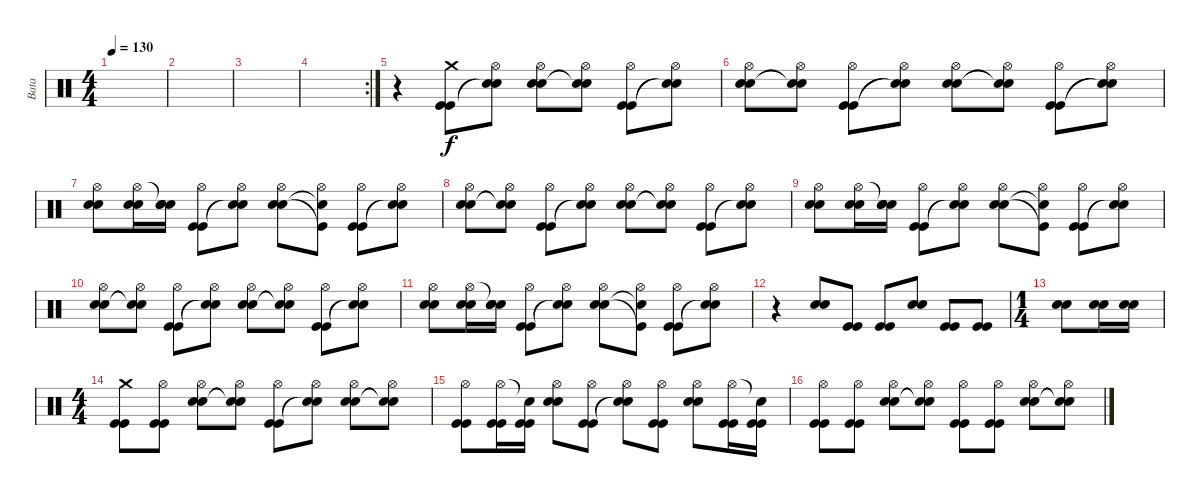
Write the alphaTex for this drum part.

\track ("Bata" "Bata") {instrument percussion}
\staff {score}
\articulation defaults
\ts (4 4)
\tempo 130
\clef neutral
\ks c
|
|
|
\rc 2
|
r.4 ("Crash medium (hit)" "Kick (hit)" "Kick (hit)").8 ("Hi-Hat (open)" "Snare (hit)"{t} "Snare (hit)"{t}).8 ("Hi-Hat (open)" "Snare (hit) 2" "Snare (hit) 2").8 ("Hi-Hat (open)" "Snare (hit)"{t} "Snare (hit)"{t}).8 ("Hi-Hat (open)" "Kick (hit)" "Kick (hit)").8 ("Hi-Hat (open)" "Snare (hit)"{t} "Snare (hit)"{t}).8 |
("Hi-Hat (open)" "Snare (hit) 2" "Snare (hit) 2").8 ("Hi-Hat (open)" "Snare (hit)"{t} "Snare (hit)"{t}).8 ("Hi-Hat (open)" "Kick (hit)" "Kick (hit)").8 ("Hi-Hat (open)" "Snare (hit)"{t} "Snare (hit)"{t}).8 ("Hi-Hat (open)" "Snare (hit) 2" "Snare (hit) 2").8 ("Hi-Hat (open)" "Snare (hit)"{t} "Snare (hit)"{t}).8 ("Hi-Hat (open)" "Kick (hit)" "Kick (hit)").8 ("Hi-Hat (open)" "Snare (hit)"{t} "Snare (hit)"{t}).8 |
("Hi-Hat (open)" "Snare (hit) 2" "Snare (hit) 2").8 ("Hi-Hat (open)" "Snare (hit) 2" "Snare (hit) 2").16 ("Snare (hit)"{t} "Snare (hit) 2" "Snare (hit) 2").16 ("Hi-Hat (open)" "Kick (hit)" "Kick (hit)").8 ("Hi-Hat (open)" "Snare (hit)"{t} "Snare (hit)"{t}).8 ("Hi-Hat (open)" "Snare (hit) 2" "Snare (hit) 2").8 ("Hi-Hat (open)" "Snare (hit)"{t} "Kick (hit)"{t}).8 ("Hi-Hat (open)" "Kick (hit)" "Kick (hit)").8 ("Hi-Hat (open)" "Snare (hit)"{t} "Snare (hit)"{t}).8 |
("Hi-Hat (open)" "Snare (hit) 2" "Snare (hit) 2").8 ("Hi-Hat (open)" "Snare (hit)"{t} "Snare (hit)"{t}).8 ("Hi-Hat (open)" "Kick (hit)" "Kick (hit)").8 ("Hi-Hat (open)" "Snare (hit)"{t} "Snare (hit)"{t}).8 ("Hi-Hat (open)" "Snare (hit) 2" "Snare (hit) 2").8 ("Hi-Hat (open)" "Snare (hit)"{t} "Snare (hit)"{t}).8 ("Hi-Hat (open)" "Kick (hit)" "Kick (hit)").8 ("Hi-Hat (open)" "Snare (hit)"{t} "Snare (hit)"{t}).8 |
("Hi-Hat (open)" "Snare (hit) 2" "Snare (hit) 2").8 ("Hi-Hat (open)" "Snare (hit) 2" "Snare (hit) 2").16 ("Snare (hit)"{t} "Snare (hit) 2" "Snare (hit) 2").16 ("Hi-Hat (open)" "Kick (hit)" "Kick (hit)").8 ("Hi-Hat (open)" "Snare (hit)"{t} "Snare (hit)"{t}).8 ("Hi-Hat (open)" "Snare (hit) 2" "Snare (hit) 2").8 ("Hi-Hat (open)" "Snare (hit)"{t} "Kick (hit)"{t}).8 ("Hi-Hat (open)" "Kick (hit)" "Kick (hit)").8 ("Hi-Hat (open)" "Snare (hit)"{t} "Snare (hit)"{t}).8 |
("Hi-Hat (open)" "Snare (hit) 2" "Snare (hit) 2").8 ("Hi-Hat (open)" "Snare (hit)"{t} "Snare (hit)"{t}).8 ("Hi-Hat (open)" "Kick (hit)" "Kick (hit)").8 ("Hi-Hat (open)" "Snare (hit)"{t} "Snare (hit)"{t}).8 ("Hi-Hat (open)" "Snare (hit) 2" "Snare (hit) 2").8 ("Hi-Hat (open)" "Snare (hit)"{t} "Snare (hit)"{t}).8 ("Hi-Hat (open)" "Kick (hit)" "Kick (hit)").8 ("Hi-Hat (open)" "Snare (hit)"{t} "Snare (hit)"{t}).8 |
("Hi-Hat (open)" "Snare (hit) 2" "Snare (hit) 2").8 ("Hi-Hat (open)" "Snare (hit) 2" "Snare (hit) 2").16 ("Snare (hit)"{t} "Snare (hit) 2" "Snare (hit) 2").16 ("Hi-Hat (open)" "Kick (hit)" "Kick (hit)").8 ("Hi-Hat (open)" "Snare (hit)"{t} "Snare (hit)"{t}).8 ("Hi-Hat (open)" "Snare (hit) 2" "Snare (hit) 2").8 ("Hi-Hat (open)" "Snare (hit)"{t} "Kick (hit)"{t}).8 ("Hi-Hat (open)" "Kick (hit)" "Kick (hit)").8 ("Hi-Hat (open)" "Snare (hit)"{t} "Snare (hit)"{t}).8 |
r.4 ("Snare (hit) 2" "Snare (hit) 2").8 ("Kick (hit)" "Kick (hit)").8 ("Kick (hit)" "Kick (hit)").8 ("Snare (hit) 2" "Snare (hit) 2").8 ("Kick (hit)" "Kick (hit)").8 ("Kick (hit)" "Kick (hit)").8 |
\ts (1 4)
("Snare (hit) 2" "Snare (hit) 2").8 ("Snare (hit) 2" "Snare (hit) 2").16 ("Snare (hit) 2" "Snare (hit) 2").16 |
\ts (4 4)
("Crash medium (hit)" "Kick (hit)" "Kick (hit)").8 ("Hi-Hat (open)" "Kick (hit)" "Kick (hit)").8 ("Hi-Hat (open)" "Snare (hit) 2" "Snare (hit) 2").8 ("Hi-Hat (open)" "Snare (hit)"{t} "Snare (hit)"{t}).8 ("Hi-Hat (open)" "Kick (hit)" "Kick (hit)").8 ("Hi-Hat (open)" "Snare (hit)"{t} "Snare (hit)"{t}).8 ("Hi-Hat (open)" "Snare (hit) 2" "Snare (hit) 2").8 ("Hi-Hat (open)" "Snare (hit)"{t} "Snare (hit)"{t}).8 |
("Hi-Hat (open)" "Kick (hit)" "Kick (hit)").8 ("Hi-Hat (open)" "Kick (hit)" "Kick (hit)").16 ("Snare (hit)"{t} "Kick (hit)" "Kick (hit)").16 ("Hi-Hat (open)" "Snare (hit) 2" "Snare (hit) 2").8 ("Hi-Hat (open)" "Kick (hit)" "Kick (hit)").8 ("Hi-Hat (open)" "Snare (hit)"{t} "Snare (hit)"{t}).8 ("Hi-Hat (open)" "Kick (hit)" "Kick (hit)").8 ("Hi-Hat (open)" "Snare (hit) 2" "Snare (hit) 2").8 ("Hi-Hat (open)" "Kick (hit)" "Kick (hit)").16 ("Snare (hit)"{t} "Kick (hit)" "Kick (hit)").16 |
("Hi-Hat (open)" "Kick (hit)" "Kick (hit)").8 ("Hi-Hat (open)" "Kick (hit)" "Kick (hit)").8 ("Hi-Hat (open)" "Snare (hit) 2" "Snare (hit) 2").8 ("Hi-Hat (open)" "Snare (hit)"{t} "Snare (hit)"{t}).8 ("Hi-Hat (open)" "Kick (hit)" "Kick (hit)").8 ("Hi-Hat (open)" "Kick (hit)" "Kick (hit)").8 ("Hi-Hat (open)" "Snare (hit) 2" "Snare (hit) 2").8 ("Hi-Hat (open)" "Snare (hit)"{t} "Snare (hit)"{t}).8
